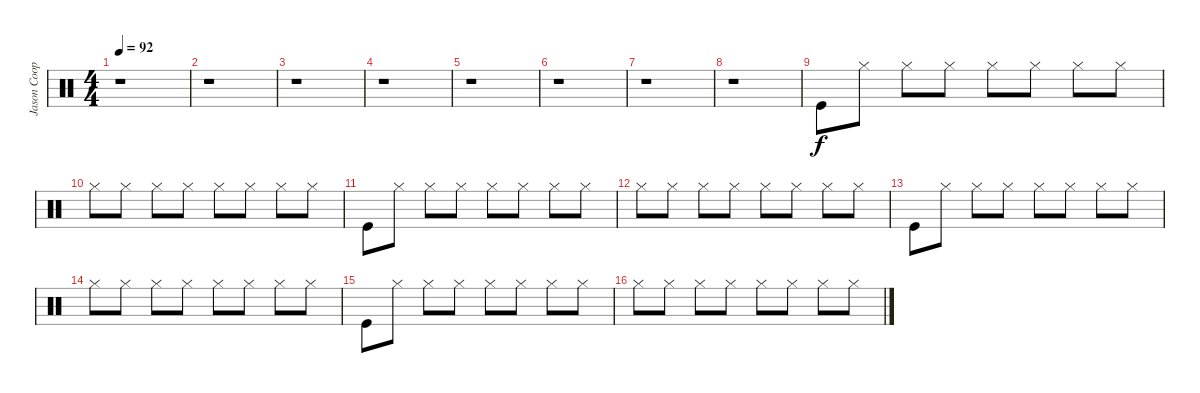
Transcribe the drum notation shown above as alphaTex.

\track ("Jason Cooper " "Jason Coop") {instrument percussion}
\staff {score}
\articulation defaults
\ts (4 4)
\tempo 92
\clef neutral
\ks c
r.1{dy f} |
r.1 |
r.1 |
r.1 |
r.1 |
r.1 |
r.1 |
r.1 |
"Kick (hit)".8 "Hi-Hat (closed)".8 "Hi-Hat (closed)".8 "Hi-Hat (closed)".8 "Hi-Hat (closed)".8 "Hi-Hat (closed)".8 "Hi-Hat (closed)".8 "Hi-Hat (closed)".8 |
"Hi-Hat (closed)".8 "Hi-Hat (closed)".8 "Hi-Hat (closed)".8 "Hi-Hat (closed)".8 "Hi-Hat (closed)".8 "Hi-Hat (closed)".8 "Hi-Hat (closed)".8 "Hi-Hat (closed)".8 |
"Kick (hit)".8 "Hi-Hat (closed)".8 "Hi-Hat (closed)".8 "Hi-Hat (closed)".8 "Hi-Hat (closed)".8 "Hi-Hat (closed)".8 "Hi-Hat (closed)".8 "Hi-Hat (closed)".8 |
"Hi-Hat (closed)".8 "Hi-Hat (closed)".8 "Hi-Hat (closed)".8 "Hi-Hat (closed)".8 "Hi-Hat (closed)".8 "Hi-Hat (closed)".8 "Hi-Hat (closed)".8 "Hi-Hat (closed)".8 |
"Kick (hit)".8 "Hi-Hat (closed)".8 "Hi-Hat (closed)".8 "Hi-Hat (closed)".8 "Hi-Hat (closed)".8 "Hi-Hat (closed)".8 "Hi-Hat (closed)".8 "Hi-Hat (closed)".8 |
"Hi-Hat (closed)".8 "Hi-Hat (closed)".8 "Hi-Hat (closed)".8 "Hi-Hat (closed)".8 "Hi-Hat (closed)".8 "Hi-Hat (closed)".8 "Hi-Hat (closed)".8 "Hi-Hat (closed)".8 |
"Kick (hit)".8 "Hi-Hat (closed)".8 "Hi-Hat (closed)".8 "Hi-Hat (closed)".8 "Hi-Hat (closed)".8 "Hi-Hat (closed)".8 "Hi-Hat (closed)".8 "Hi-Hat (closed)".8 |
"Hi-Hat (closed)".8 "Hi-Hat (closed)".8 "Hi-Hat (closed)".8 "Hi-Hat (closed)".8 "Hi-Hat (closed)".8 "Hi-Hat (closed)".8 "Hi-Hat (closed)".8 "Hi-Hat (closed)".8
